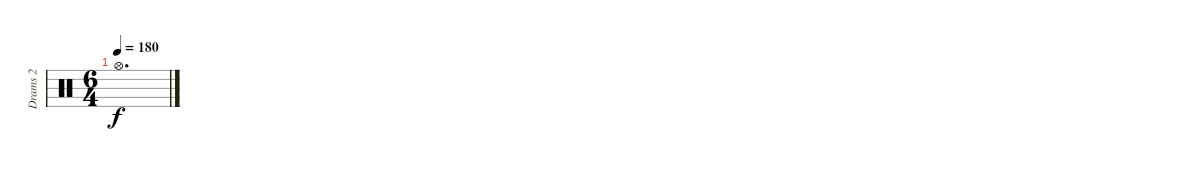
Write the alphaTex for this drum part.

\track ("Drams 2" "Drams 2") {instrument percussion}
\staff {score}
\articulation defaults
\ts (6 4)
\tempo 180
\clef neutral
\ks c "Hi-Hat (open)".1{d dy f}
